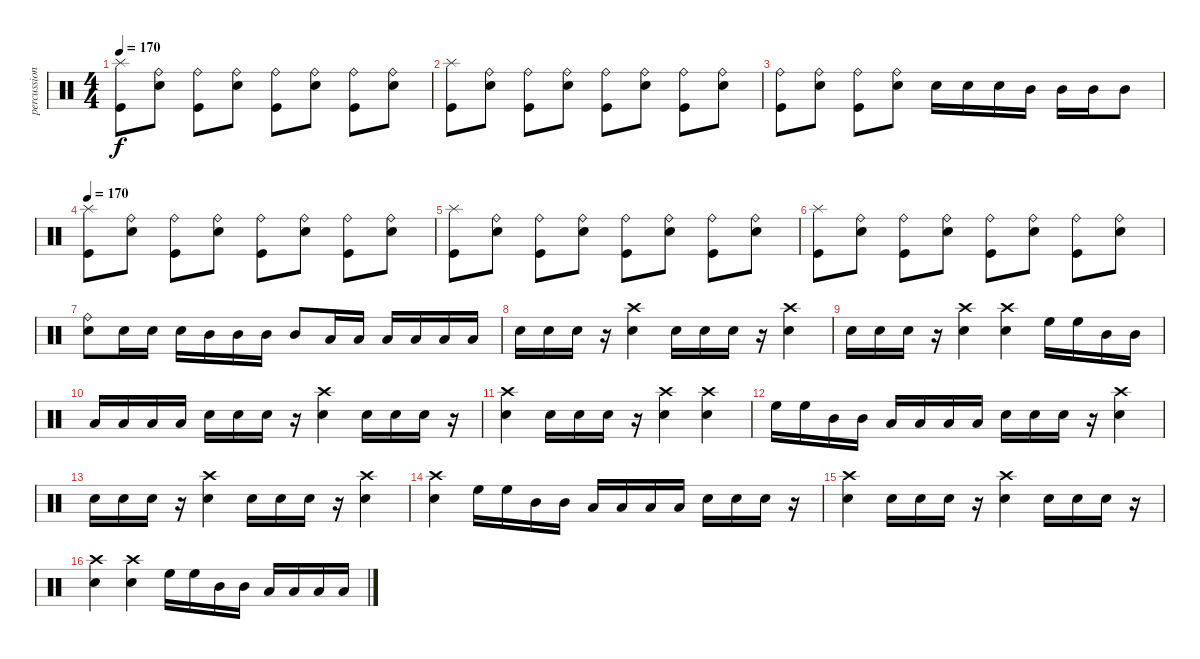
\track ("percussion" "percussion") {instrument percussion}
\staff {score}
\articulation defaults
\ts (4 4)
\tempo 170
\clef neutral
\ks c
("Kick (hit)" "Splash (hit)").8{dy f} ("Electric Snare (hit)" "Ride (bell)").8 ("Kick (hit)" "Ride (bell)").8 ("Electric Snare (hit)" "Ride (bell)").8 ("Kick (hit)" "Ride (bell)").8 ("Electric Snare (hit)" "Ride (bell)").8 ("Kick (hit)" "Ride (bell)").8 ("Electric Snare (hit)" "Ride (bell)").8 |
("Kick (hit)" "Splash (hit)").8 ("Electric Snare (hit)" "Ride (bell)").8 ("Kick (hit)" "Ride (bell)").8 ("Electric Snare (hit)" "Ride (bell)").8 ("Kick (hit)" "Ride (bell)").8 ("Electric Snare (hit)" "Ride (bell)").8 ("Kick (hit)" "Ride (bell)").8 ("Electric Snare (hit)" "Ride (bell)").8 |
("Kick (hit)" "Ride (bell)").8 ("Electric Snare (hit)" "Ride (bell)").8 ("Kick (hit)" "Ride (bell)").8 ("Electric Snare (hit)" "Ride (bell)").8 "Electric Snare (hit)".16 "Electric Snare (hit)".16 "Electric Snare (hit)".16 "Mid Tom (hit)".16 "Mid Tom (hit)".16 "Mid Tom (hit)".16 "Mid Tom (hit)".8 |
\tempo 170
("Kick (hit)" "Splash (hit)").8 ("Electric Snare (hit)" "Ride (bell)").8 ("Kick (hit)" "Ride (bell)").8 ("Electric Snare (hit)" "Ride (bell)").8 ("Kick (hit)" "Ride (bell)").8 ("Electric Snare (hit)" "Ride (bell)").8 ("Kick (hit)" "Ride (bell)").8 ("Electric Snare (hit)" "Ride (bell)").8 |
("Kick (hit)" "Splash (hit)").8 ("Electric Snare (hit)" "Ride (bell)").8 ("Kick (hit)" "Ride (bell)").8 ("Electric Snare (hit)" "Ride (bell)").8 ("Kick (hit)" "Ride (bell)").8 ("Electric Snare (hit)" "Ride (bell)").8 ("Kick (hit)" "Ride (bell)").8 ("Electric Snare (hit)" "Ride (bell)").8 |
("Kick (hit)" "Splash (hit)").8 ("Electric Snare (hit)" "Ride (bell)").8 ("Kick (hit)" "Ride (bell)").8 ("Electric Snare (hit)" "Ride (bell)").8 ("Kick (hit)" "Ride (bell)").8 ("Electric Snare (hit)" "Ride (bell)").8 ("Kick (hit)" "Ride (bell)").8 ("Electric Snare (hit)" "Ride (bell)").8 |
("Electric Snare (hit)" "Ride (bell)").8 "Electric Snare (hit)".16 "Electric Snare (hit)".16 "Electric Snare (hit)".16 "Mid Tom (hit)".16 "Mid Tom (hit)".16 "Mid Tom (hit)".16 "Mid Tom (hit)".8 "Low Tom (hit)".16 "Low Tom (hit)".16 "Low Tom (hit)".16 "Low Tom (hit)".16 "Low Floor Tom (hit)".16 "Low Floor Tom (hit)".16 |
"Snare (hit) 2".16 "Snare (hit) 2".16 "Snare (hit) 2".16 r.16 ("Crash high (hit)" "Snare (hit) 2").4 "Snare (hit) 2".16 "Snare (hit) 2".16 "Snare (hit) 2".16 r.16 ("Crash high (hit)" "Snare (hit) 2").4 |
"Snare (hit) 2".16 "Snare (hit) 2".16 "Snare (hit) 2".16 r.16 ("Crash high (hit)" "Snare (hit) 2").4 ("Crash high (hit)" "Snare (hit) 2").4 "High Floor Tom (hit)".16 "High Floor Tom (hit)".16 "Mid Tom (hit)".16 "Mid Tom (hit)".16 |
"Low Tom (hit)".16 "Low Tom (hit)".16 "Low Floor Tom (hit)".16 "Low Floor Tom (hit)".16 "Snare (hit) 2".16 "Snare (hit) 2".16 "Snare (hit) 2".16 r.16 ("Crash high (hit)" "Snare (hit) 2").4 "Snare (hit) 2".16 "Snare (hit) 2".16 "Snare (hit) 2".16 r.16 |
("Crash high (hit)" "Snare (hit) 2").4 "Snare (hit) 2".16 "Snare (hit) 2".16 "Snare (hit) 2".16 r.16 ("Crash high (hit)" "Snare (hit) 2").4 ("Crash high (hit)" "Snare (hit) 2").4 |
"High Floor Tom (hit)".16 "High Floor Tom (hit)".16 "Mid Tom (hit)".16 "Mid Tom (hit)".16 "Low Tom (hit)".16 "Low Tom (hit)".16 "Low Floor Tom (hit)".16 "Low Floor Tom (hit)".16 "Snare (hit) 2".16 "Snare (hit) 2".16 "Snare (hit) 2".16 r.16 ("Crash high (hit)" "Snare (hit) 2").4 |
"Snare (hit) 2".16 "Snare (hit) 2".16 "Snare (hit) 2".16 r.16 ("Crash high (hit)" "Snare (hit) 2").4 "Snare (hit) 2".16 "Snare (hit) 2".16 "Snare (hit) 2".16 r.16 ("Crash high (hit)" "Snare (hit) 2").4 |
("Crash high (hit)" "Snare (hit) 2").4 "High Floor Tom (hit)".16 "High Floor Tom (hit)".16 "Mid Tom (hit)".16 "Mid Tom (hit)".16 "Low Tom (hit)".16 "Low Tom (hit)".16 "Low Floor Tom (hit)".16 "Low Floor Tom (hit)".16 "Snare (hit) 2".16 "Snare (hit) 2".16 "Snare (hit) 2".16 r.16 |
("Crash high (hit)" "Snare (hit) 2").4 "Snare (hit) 2".16 "Snare (hit) 2".16 "Snare (hit) 2".16 r.16 ("Crash high (hit)" "Snare (hit) 2").4 "Snare (hit) 2".16 "Snare (hit) 2".16 "Snare (hit) 2".16 r.16 |
("Crash high (hit)" "Snare (hit) 2").4 ("Crash high (hit)" "Snare (hit) 2").4 "High Floor Tom (hit)".16 "High Floor Tom (hit)".16 "Mid Tom (hit)".16 "Mid Tom (hit)".16 "Low Tom (hit)".16 "Low Tom (hit)".16 "Low Floor Tom (hit)".16 "Low Floor Tom (hit)".16
